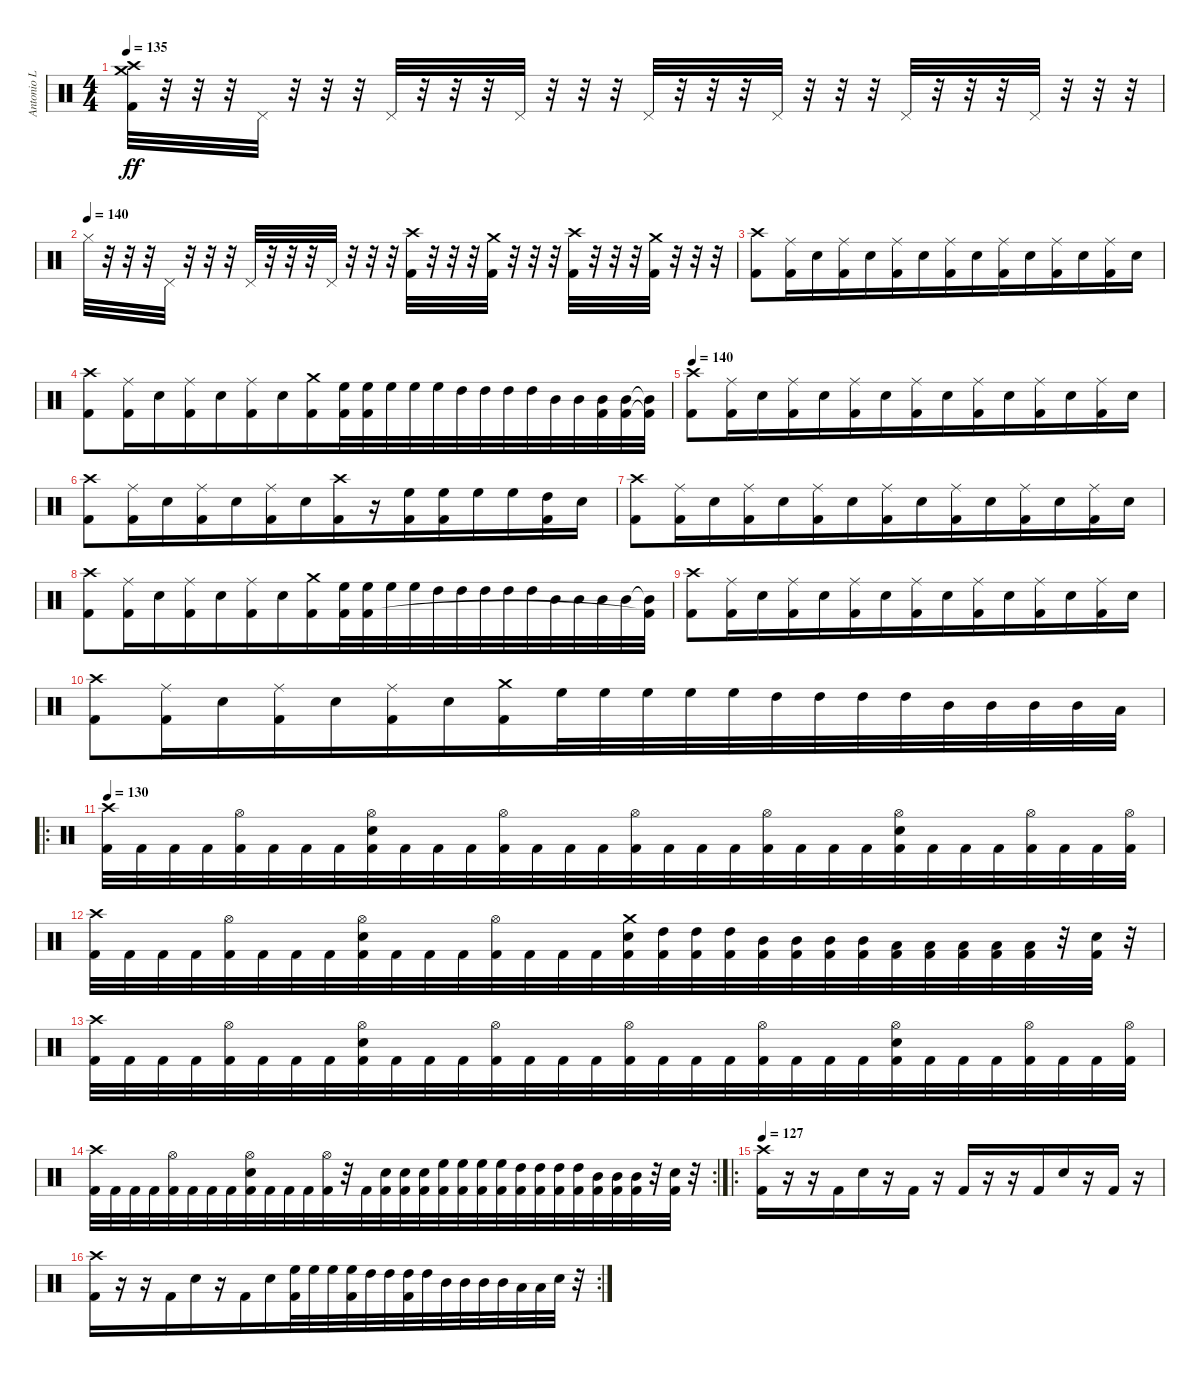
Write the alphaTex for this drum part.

\track ("Antonio L" "Antonio L") {instrument percussion}
\staff {score}
\articulation defaults
\ts (4 4)
\tempo 135
\clef neutral
\ks c
("Crash high (hit)" "Crash medium (hit)" "Kick (hit) 2").32{dy ff} r.32 r.32 r.32 "Pedal Hi-Hat (hit)".32 r.32 r.32 r.32 "Pedal Hi-Hat (hit)".32 r.32 r.32 r.32 "Pedal Hi-Hat (hit)".32 r.32 r.32 r.32 "Pedal Hi-Hat (hit)".32 r.32 r.32 r.32 "Pedal Hi-Hat (hit)".32 r.32 r.32 r.32 "Pedal Hi-Hat (hit)".32 r.32 r.32 r.32 "Pedal Hi-Hat (hit)".32 r.32 r.32 r.32 |
\tempo (140)
"Hi-Hat (closed)".32 r.32 r.32 r.32 "Pedal Hi-Hat (hit)".32 r.32 r.32 r.32 "Pedal Hi-Hat (hit)".32 r.32 r.32 r.32 "Pedal Hi-Hat (hit)".32 r.32 r.32 r.32 ("Crash high (hit)" "Kick (hit) 2").32 r.32 r.32 r.32 ("Crash medium (hit)" "Kick (hit) 2").32 r.32 r.32 r.32 ("Crash high (hit)" "Kick (hit) 2").32 r.32 r.32 r.32 ("Crash medium (hit)" "Kick (hit) 2").32 r.32 r.32 r.32 |
("Crash high (hit)" "Kick (hit) 2").8 ("Ride (middle)" "Kick (hit) 2").16 "Electric Snare (hit)".16{beam merge} ("Ride (middle)" "Kick (hit) 2").16 "Electric Snare (hit)".16 ("Ride (middle)" "Kick (hit) 2").16 "Electric Snare (hit)".16{beam merge} ("Ride (middle)" "Kick (hit) 2").16 "Electric Snare (hit)".16 ("Ride (middle)" "Kick (hit) 2").16 "Electric Snare (hit)".16{beam merge} ("Ride (middle)" "Kick (hit) 2").16 "Electric Snare (hit)".16 ("Ride (middle)" "Kick (hit) 2").16 "Electric Snare (hit)".16 |
("Crash high (hit)" "Kick (hit) 2").8 ("Ride (middle)" "Kick (hit) 2").16 "Electric Snare (hit)".16{beam merge} ("Ride (middle)" "Kick (hit) 2").16 "Electric Snare (hit)".16 ("Ride (middle)" "Kick (hit) 2").16 "Electric Snare (hit)".16{beam merge} ("Crash medium (hit)" "Kick (hit) 2").16 ("High Floor Tom (hit)" "Kick (hit) 2").32 ("High Floor Tom (hit)" "Kick (hit) 2").32 "High Floor Tom (hit)".32 "High Floor Tom (hit)".32 "High Floor Tom (hit)".32 "High Tom (hit)".32{beam merge} "High Tom (hit)".32 "High Tom (hit)".32 "High Tom (hit)".32 "Mid Tom (hit)".32 "Mid Tom (hit)".32 ("Mid Tom (hit)" "Kick (hit) 2").32 ("Mid Tom (hit)" "Kick (hit) 2").32 ("Mid Tom (hit)"{t} "Kick (hit) 2"{t}).32 |
\tempo 140
("Crash high (hit)" "Kick (hit) 2").8 ("Ride (middle)" "Kick (hit) 2").16 "Electric Snare (hit)".16{beam merge} ("Ride (middle)" "Kick (hit) 2").16 "Electric Snare (hit)".16 ("Ride (middle)" "Kick (hit) 2").16 "Electric Snare (hit)".16{beam merge} ("Ride (middle)" "Kick (hit) 2").16 "Electric Snare (hit)".16 ("Ride (middle)" "Kick (hit) 2").16 "Electric Snare (hit)".16{beam merge} ("Ride (middle)" "Kick (hit) 2").16 "Electric Snare (hit)".16 ("Ride (middle)" "Kick (hit) 2").16 "Electric Snare (hit)".16 |
("Crash high (hit)" "Kick (hit) 2").8 ("Ride (middle)" "Kick (hit) 2").16 "Electric Snare (hit)".16{beam merge} ("Ride (middle)" "Kick (hit) 2").16 "Electric Snare (hit)".16 ("Ride (middle)" "Kick (hit) 2").16 "Electric Snare (hit)".16{beam merge} ("Crash high (hit)" "Kick (hit) 2").16 r.16 ("High Floor Tom (hit)" "Kick (hit) 2").16 ("High Floor Tom (hit)" "Kick (hit) 2").16{beam merge} "High Floor Tom (hit)".16 "High Floor Tom (hit)".16 ("High Tom (hit)" "Kick (hit) 2").16 "Electric Snare (hit)".16 |
("Crash high (hit)" "Kick (hit) 2").8 ("Ride (middle)" "Kick (hit) 2").16 "Electric Snare (hit)".16{beam merge} ("Ride (middle)" "Kick (hit) 2").16 "Electric Snare (hit)".16 ("Ride (middle)" "Kick (hit) 2").16 "Electric Snare (hit)".16{beam merge} ("Ride (middle)" "Kick (hit) 2").16 "Electric Snare (hit)".16 ("Ride (middle)" "Kick (hit) 2").16 "Electric Snare (hit)".16{beam merge} ("Ride (middle)" "Kick (hit) 2").16 "Electric Snare (hit)".16 ("Ride (middle)" "Kick (hit) 2").16 "Electric Snare (hit)".16 |
("Crash high (hit)" "Kick (hit) 2").8 ("Ride (middle)" "Kick (hit) 2").16 "Electric Snare (hit)".16{beam merge} ("Ride (middle)" "Kick (hit) 2").16 "Electric Snare (hit)".16 ("Ride (middle)" "Kick (hit) 2").16 "Electric Snare (hit)".16{beam merge} ("Crash medium (hit)" "Kick (hit) 2").16 ("High Floor Tom (hit)" "Kick (hit) 2").32 ("High Floor Tom (hit)" "Kick (hit) 2").32 "High Floor Tom (hit)".32 "High Floor Tom (hit)".32 "High Tom (hit)".32 "High Tom (hit)".32{beam merge} "High Tom (hit)".32 "High Tom (hit)".32 "High Tom (hit)".32 "Mid Tom (hit)".32 "Mid Tom (hit)".32 "Mid Tom (hit)".32 "Mid Tom (hit)".32 ("Mid Tom (hit)"{t} "Kick (hit) 2"{t}).32 |
("Crash high (hit)" "Kick (hit) 2").8 ("Ride (middle)" "Kick (hit) 2").16 "Electric Snare (hit)".16{beam merge} ("Ride (middle)" "Kick (hit) 2").16 "Electric Snare (hit)".16 ("Ride (middle)" "Kick (hit) 2").16 "Electric Snare (hit)".16{beam merge} ("Ride (middle)" "Kick (hit) 2").16 "Electric Snare (hit)".16 ("Ride (middle)" "Kick (hit) 2").16 "Electric Snare (hit)".16{beam merge} ("Ride (middle)" "Kick (hit) 2").16 "Electric Snare (hit)".16 ("Ride (middle)" "Kick (hit) 2").16 "Electric Snare (hit)".16 |
("Crash high (hit)" "Kick (hit) 2").8 ("Ride (middle)" "Kick (hit) 2").16 "Electric Snare (hit)".16{beam merge} ("Ride (middle)" "Kick (hit) 2").16 "Electric Snare (hit)".16 ("Ride (middle)" "Kick (hit) 2").16 "Electric Snare (hit)".16{beam merge} ("Crash medium (hit)" "Kick (hit) 2").16 "High Floor Tom (hit)".32 "High Floor Tom (hit)".32 "High Floor Tom (hit)".32 "High Floor Tom (hit)".32 "High Floor Tom (hit)".32 "High Tom (hit)".32{beam merge} "High Tom (hit)".32 "High Tom (hit)".32 "High Tom (hit)".32 "Mid Tom (hit)".32 "Mid Tom (hit)".32 "Mid Tom (hit)".32 "Mid Tom (hit)".32 "Low Tom (hit)".32 |
\ro
\tempo 130
("Crash high (hit)" "Kick (hit) 2").32 "Kick (hit) 2".32 "Kick (hit) 2".32 "Kick (hit) 2".32 ("Hi-Hat (open)" "Kick (hit) 2").32 "Kick (hit) 2".32 "Kick (hit) 2".32 "Kick (hit) 2".32{beam merge} ("Hi-Hat (open)" "Electric Snare (hit)" "Kick (hit) 2").32 "Kick (hit) 2".32 "Kick (hit) 2".32 "Kick (hit) 2".32 ("Hi-Hat (open)" "Kick (hit) 2").32 "Kick (hit) 2".32 "Kick (hit) 2".32 "Kick (hit) 2".32{beam merge} ("Hi-Hat (open)" "Kick (hit) 2").32 "Kick (hit) 2".32 "Kick (hit) 2".32 "Kick (hit) 2".32 ("Hi-Hat (open)" "Kick (hit) 2").32 "Kick (hit) 2".32 "Kick (hit) 2".32 "Kick (hit) 2".32{beam merge} ("Hi-Hat (open)" "Electric Snare (hit)" "Kick (hit) 2").32 "Kick (hit) 2".32 "Kick (hit) 2".32 "Kick (hit) 2".32 ("Hi-Hat (open)" "Kick (hit) 2").32 "Kick (hit) 2".32 "Kick (hit) 2".32 ("Hi-Hat (open)" "Kick (hit) 2").32 |
("Crash high (hit)" "Kick (hit) 2").32 "Kick (hit) 2".32 "Kick (hit) 2".32 "Kick (hit) 2".32 ("Hi-Hat (open)" "Kick (hit) 2").32 "Kick (hit) 2".32 "Kick (hit) 2".32 "Kick (hit) 2".32{beam merge} ("Hi-Hat (open)" "Electric Snare (hit)" "Kick (hit) 2").32 "Kick (hit) 2".32 "Kick (hit) 2".32 "Kick (hit) 2".32 ("Hi-Hat (open)" "Kick (hit) 2").32 "Kick (hit) 2".32 "Kick (hit) 2".32 "Kick (hit) 2".32{beam merge} ("Crash medium (hit)" "Electric Snare (hit)" "Kick (hit) 2").32 ("High Tom (hit)" "Kick (hit) 2").32 ("High Tom (hit)" "Kick (hit) 2").32 ("High Tom (hit)" "Kick (hit) 2").32 ("Mid Tom (hit)" "Kick (hit) 2").32 ("Mid Tom (hit)" "Kick (hit) 2").32 ("Mid Tom (hit)" "Kick (hit) 2").32 ("Mid Tom (hit)" "Kick (hit) 2").32{beam merge} ("Low Tom (hit)" "Kick (hit) 2").32 ("Low Tom (hit)" "Kick (hit) 2").32 ("Low Tom (hit)" "Kick (hit) 2").32 ("Low Tom (hit)" "Kick (hit) 2").32 ("Low Tom (hit)" "Kick (hit) 2").32 r.32 ("Electric Snare (hit)" "Kick (hit) 2").32 r.32 |
("Crash high (hit)" "Kick (hit) 2").32 "Kick (hit) 2".32 "Kick (hit) 2".32 "Kick (hit) 2".32 ("Hi-Hat (open)" "Kick (hit) 2").32 "Kick (hit) 2".32 "Kick (hit) 2".32 "Kick (hit) 2".32{beam merge} ("Hi-Hat (open)" "Electric Snare (hit)" "Kick (hit) 2").32 "Kick (hit) 2".32 "Kick (hit) 2".32 "Kick (hit) 2".32 ("Hi-Hat (open)" "Kick (hit) 2").32 "Kick (hit) 2".32 "Kick (hit) 2".32 "Kick (hit) 2".32{beam merge} ("Hi-Hat (open)" "Kick (hit) 2").32 "Kick (hit) 2".32 "Kick (hit) 2".32 "Kick (hit) 2".32 ("Hi-Hat (open)" "Kick (hit) 2").32 "Kick (hit) 2".32 "Kick (hit) 2".32 "Kick (hit) 2".32{beam merge} ("Hi-Hat (open)" "Electric Snare (hit)" "Kick (hit) 2").32 "Kick (hit) 2".32 "Kick (hit) 2".32 "Kick (hit) 2".32 ("Hi-Hat (open)" "Kick (hit) 2").32 "Kick (hit) 2".32 "Kick (hit) 2".32 ("Hi-Hat (open)" "Kick (hit) 2").32 |
\rc 2
("Crash high (hit)" "Kick (hit) 2").32 "Kick (hit) 2".32 "Kick (hit) 2".32 "Kick (hit) 2".32 ("Hi-Hat (open)" "Kick (hit) 2").32 "Kick (hit) 2".32 "Kick (hit) 2".32 "Kick (hit) 2".32{beam merge} ("Hi-Hat (open)" "Electric Snare (hit)" "Kick (hit) 2").32 "Kick (hit) 2".32 "Kick (hit) 2".32 "Kick (hit) 2".32 ("Hi-Hat (open)" "Kick (hit) 2").32 r.32 "Kick (hit) 2".32 ("Electric Snare (hit)" "Kick (hit) 2").32{beam merge} ("Electric Snare (hit)" "Kick (hit) 2").32 ("Electric Snare (hit)" "Kick (hit) 2").32 ("High Floor Tom (hit)" "Kick (hit) 2").32 ("High Floor Tom (hit)" "Kick (hit) 2").32 ("High Floor Tom (hit)" "Kick (hit) 2").32 ("High Floor Tom (hit)" "Kick (hit) 2").32 ("High Tom (hit)" "Kick (hit) 2").32 ("High Tom (hit)" "Kick (hit) 2").32{beam merge} ("High Tom (hit)" "Kick (hit) 2").32 ("High Tom (hit)" "Kick (hit) 2").32 ("Mid Tom (hit)" "Kick (hit) 2").32 ("Mid Tom (hit)" "Kick (hit) 2").32 ("Mid Tom (hit)" "Kick (hit) 2").32 r.32 ("Electric Snare (hit)" "Kick (hit) 2").32 r.32 |
\ro
\tempo 127
("Crash high (hit)" "Kick (hit) 2").16 r.16 r.16 "Kick (hit) 2".16{beam merge} "Electric Snare (hit)".16 r.16 "Kick (hit) 2".16 r.16 "Kick (hit) 2".16 r.16 r.16 "Kick (hit) 2".16{beam merge} "Electric Snare (hit)".16 r.16 "Kick (hit) 2".16 r.16 |
\rc 2
("Crash high (hit)" "Kick (hit) 2").16 r.16 r.16 "Kick (hit) 2".16{beam merge} "Electric Snare (hit)".16 r.16 "Kick (hit) 2".16 "Electric Snare (hit)".16{beam merge} ("High Floor Tom (hit)" "Kick (hit) 2").32 "High Floor Tom (hit)".32 "High Floor Tom (hit)".32 ("High Floor Tom (hit)" "Kick (hit) 2").32 "High Tom (hit)".32 "High Tom (hit)".32 ("High Tom (hit)" "Kick (hit) 2").32 "High Tom (hit)".32{beam merge} "Mid Tom (hit)".32 "Mid Tom (hit)".32 "Mid Tom (hit)".32 "Mid Tom (hit)".32 "Low Tom (hit)".32 "Low Tom (hit)".32 "Electric Snare (hit)".32 r.32
